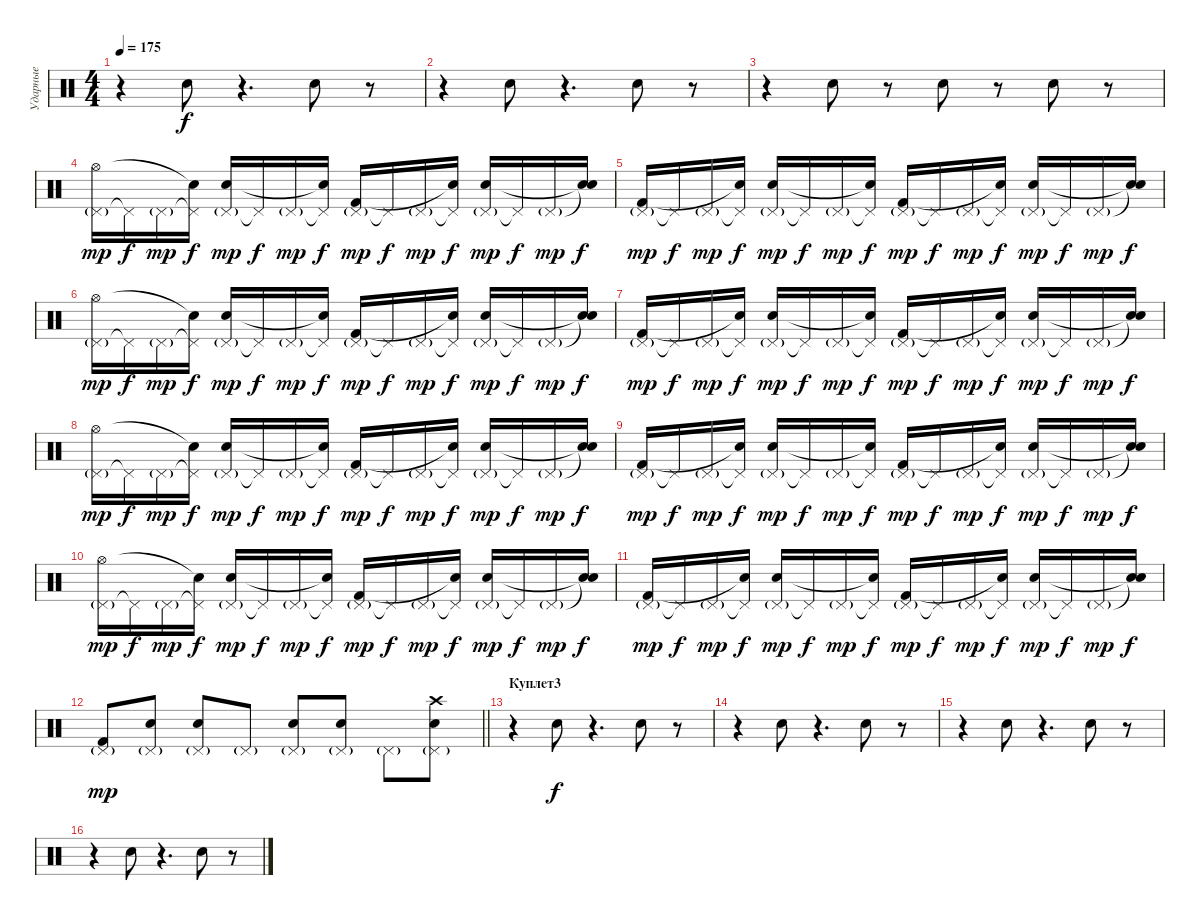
\track ("Ударные" "Ударные") {instrument percussion}
\staff {score}
\articulation defaults
\ts (4 4)
\tempo 175
\clef neutral
\ks c
r.4{dy f} "Electric Snare (hit)".8 r.4{d} "Electric Snare (hit)".8 r.8 |
r.4 "Electric Snare (hit)".8 r.4{d} "Electric Snare (hit)".8 r.8 |
r.4 "Electric Snare (hit)".8 r.8 "Electric Snare (hit)".8 r.8 "Electric Snare (hit)".8 r.8 |
("Pedal Hi-Hat (hit)"{g} "Hi-Hat (open)").16{dy mp} "Pedal Hi-Hat (hit)"{t}.16{dy f} "Pedal Hi-Hat (hit)"{g}.16{dy mp} ("Pedal Hi-Hat (hit)"{t} "Snare (hit)"{t}).16{dy f} ("Pedal Hi-Hat (hit)"{g} "Electric Snare (hit)").16{dy mp} "Pedal Hi-Hat (hit)"{t}.16{dy f} "Pedal Hi-Hat (hit)"{g}.16{dy mp} ("Pedal Hi-Hat (hit)"{t} "Snare (hit)"{t}).16{dy f} ("Pedal Hi-Hat (hit)"{g} "Kick (hit) 2").16{dy mp} "Pedal Hi-Hat (hit)"{t}.16{dy f} "Pedal Hi-Hat (hit)"{g}.16{dy mp} ("Pedal Hi-Hat (hit)"{t} "Snare (hit)"{t}).16{dy f} ("Pedal Hi-Hat (hit)"{g} "Electric Snare (hit)").16{dy mp} "Pedal Hi-Hat (hit)"{t}.16{dy f} "Pedal Hi-Hat (hit)"{g}.16{dy mp} ("Snare (hit)"{t} "Snare (hit)"{t}).16{dy f} |
("Pedal Hi-Hat (hit)"{g} "Kick (hit) 2").16{dy mp} "Pedal Hi-Hat (hit)"{t}.16{dy f} "Pedal Hi-Hat (hit)"{g}.16{dy mp} ("Pedal Hi-Hat (hit)"{t} "Snare (hit)"{t}).16{dy f} ("Pedal Hi-Hat (hit)"{g} "Electric Snare (hit)").16{dy mp} "Pedal Hi-Hat (hit)"{t}.16{dy f} "Pedal Hi-Hat (hit)"{g}.16{dy mp} ("Pedal Hi-Hat (hit)"{t} "Snare (hit)"{t}).16{dy f} ("Pedal Hi-Hat (hit)"{g} "Kick (hit) 2").16{dy mp} "Pedal Hi-Hat (hit)"{t}.16{dy f} "Pedal Hi-Hat (hit)"{g}.16{dy mp} ("Pedal Hi-Hat (hit)"{t} "Snare (hit)"{t}).16{dy f} ("Pedal Hi-Hat (hit)"{g} "Electric Snare (hit)").16{dy mp} "Pedal Hi-Hat (hit)"{t}.16{dy f} "Pedal Hi-Hat (hit)"{g}.16{dy mp} ("Snare (hit)"{t} "Snare (hit)"{t}).16{dy f} |
("Pedal Hi-Hat (hit)"{g} "Hi-Hat (open)").16{dy mp} "Pedal Hi-Hat (hit)"{t}.16{dy f} "Pedal Hi-Hat (hit)"{g}.16{dy mp} ("Pedal Hi-Hat (hit)"{t} "Snare (hit)"{t}).16{dy f} ("Pedal Hi-Hat (hit)"{g} "Electric Snare (hit)").16{dy mp} "Pedal Hi-Hat (hit)"{t}.16{dy f} "Pedal Hi-Hat (hit)"{g}.16{dy mp} ("Pedal Hi-Hat (hit)"{t} "Snare (hit)"{t}).16{dy f} ("Pedal Hi-Hat (hit)"{g} "Kick (hit) 2").16{dy mp} "Pedal Hi-Hat (hit)"{t}.16{dy f} "Pedal Hi-Hat (hit)"{g}.16{dy mp} ("Pedal Hi-Hat (hit)"{t} "Snare (hit)"{t}).16{dy f} ("Pedal Hi-Hat (hit)"{g} "Electric Snare (hit)").16{dy mp} "Pedal Hi-Hat (hit)"{t}.16{dy f} "Pedal Hi-Hat (hit)"{g}.16{dy mp} ("Snare (hit)"{t} "Snare (hit)"{t}).16{dy f} |
("Pedal Hi-Hat (hit)"{g} "Kick (hit) 2").16{dy mp} "Pedal Hi-Hat (hit)"{t}.16{dy f} "Pedal Hi-Hat (hit)"{g}.16{dy mp} ("Pedal Hi-Hat (hit)"{t} "Snare (hit)"{t}).16{dy f} ("Pedal Hi-Hat (hit)"{g} "Electric Snare (hit)").16{dy mp} "Pedal Hi-Hat (hit)"{t}.16{dy f} "Pedal Hi-Hat (hit)"{g}.16{dy mp} ("Pedal Hi-Hat (hit)"{t} "Snare (hit)"{t}).16{dy f} ("Pedal Hi-Hat (hit)"{g} "Kick (hit) 2").16{dy mp} "Pedal Hi-Hat (hit)"{t}.16{dy f} "Pedal Hi-Hat (hit)"{g}.16{dy mp} ("Pedal Hi-Hat (hit)"{t} "Snare (hit)"{t}).16{dy f} ("Pedal Hi-Hat (hit)"{g} "Electric Snare (hit)").16{dy mp} "Pedal Hi-Hat (hit)"{t}.16{dy f} "Pedal Hi-Hat (hit)"{g}.16{dy mp} ("Snare (hit)"{t} "Snare (hit)"{t}).16{dy f} |
("Pedal Hi-Hat (hit)"{g} "Hi-Hat (open)").16{dy mp} "Pedal Hi-Hat (hit)"{t}.16{dy f} "Pedal Hi-Hat (hit)"{g}.16{dy mp} ("Pedal Hi-Hat (hit)"{t} "Snare (hit)"{t}).16{dy f} ("Pedal Hi-Hat (hit)"{g} "Electric Snare (hit)").16{dy mp} "Pedal Hi-Hat (hit)"{t}.16{dy f} "Pedal Hi-Hat (hit)"{g}.16{dy mp} ("Pedal Hi-Hat (hit)"{t} "Snare (hit)"{t}).16{dy f} ("Pedal Hi-Hat (hit)"{g} "Kick (hit) 2").16{dy mp} "Pedal Hi-Hat (hit)"{t}.16{dy f} "Pedal Hi-Hat (hit)"{g}.16{dy mp} ("Pedal Hi-Hat (hit)"{t} "Snare (hit)"{t}).16{dy f} ("Pedal Hi-Hat (hit)"{g} "Electric Snare (hit)").16{dy mp} "Pedal Hi-Hat (hit)"{t}.16{dy f} "Pedal Hi-Hat (hit)"{g}.16{dy mp} ("Snare (hit)"{t} "Snare (hit)"{t}).16{dy f} |
("Pedal Hi-Hat (hit)"{g} "Kick (hit) 2").16{dy mp} "Pedal Hi-Hat (hit)"{t}.16{dy f} "Pedal Hi-Hat (hit)"{g}.16{dy mp} ("Pedal Hi-Hat (hit)"{t} "Snare (hit)"{t}).16{dy f} ("Pedal Hi-Hat (hit)"{g} "Electric Snare (hit)").16{dy mp} "Pedal Hi-Hat (hit)"{t}.16{dy f} "Pedal Hi-Hat (hit)"{g}.16{dy mp} ("Pedal Hi-Hat (hit)"{t} "Snare (hit)"{t}).16{dy f} ("Pedal Hi-Hat (hit)"{g} "Kick (hit) 2").16{dy mp} "Pedal Hi-Hat (hit)"{t}.16{dy f} "Pedal Hi-Hat (hit)"{g}.16{dy mp} ("Pedal Hi-Hat (hit)"{t} "Snare (hit)"{t}).16{dy f} ("Pedal Hi-Hat (hit)"{g} "Electric Snare (hit)").16{dy mp} "Pedal Hi-Hat (hit)"{t}.16{dy f} "Pedal Hi-Hat (hit)"{g}.16{dy mp} ("Snare (hit)"{t} "Snare (hit)"{t}).16{dy f} |
("Pedal Hi-Hat (hit)"{g} "Hi-Hat (open)").16{dy mp} "Pedal Hi-Hat (hit)"{t}.16{dy f} "Pedal Hi-Hat (hit)"{g}.16{dy mp} ("Pedal Hi-Hat (hit)"{t} "Snare (hit)"{t}).16{dy f} ("Pedal Hi-Hat (hit)"{g} "Electric Snare (hit)").16{dy mp} "Pedal Hi-Hat (hit)"{t}.16{dy f} "Pedal Hi-Hat (hit)"{g}.16{dy mp} ("Pedal Hi-Hat (hit)"{t} "Snare (hit)"{t}).16{dy f} ("Pedal Hi-Hat (hit)"{g} "Kick (hit) 2").16{dy mp} "Pedal Hi-Hat (hit)"{t}.16{dy f} "Pedal Hi-Hat (hit)"{g}.16{dy mp} ("Pedal Hi-Hat (hit)"{t} "Snare (hit)"{t}).16{dy f} ("Pedal Hi-Hat (hit)"{g} "Electric Snare (hit)").16{dy mp} "Pedal Hi-Hat (hit)"{t}.16{dy f} "Pedal Hi-Hat (hit)"{g}.16{dy mp} ("Snare (hit)"{t} "Snare (hit)"{t}).16{dy f} |
("Pedal Hi-Hat (hit)"{g} "Kick (hit) 2").16{dy mp} "Pedal Hi-Hat (hit)"{t}.16{dy f} "Pedal Hi-Hat (hit)"{g}.16{dy mp} ("Pedal Hi-Hat (hit)"{t} "Snare (hit)"{t}).16{dy f} ("Pedal Hi-Hat (hit)"{g} "Electric Snare (hit)").16{dy mp} "Pedal Hi-Hat (hit)"{t}.16{dy f} "Pedal Hi-Hat (hit)"{g}.16{dy mp} ("Pedal Hi-Hat (hit)"{t} "Snare (hit)"{t}).16{dy f} ("Pedal Hi-Hat (hit)"{g} "Kick (hit) 2").16{dy mp} "Pedal Hi-Hat (hit)"{t}.16{dy f} "Pedal Hi-Hat (hit)"{g}.16{dy mp} ("Pedal Hi-Hat (hit)"{t} "Snare (hit)"{t}).16{dy f} ("Pedal Hi-Hat (hit)"{g} "Electric Snare (hit)").16{dy mp} "Pedal Hi-Hat (hit)"{t}.16{dy f} "Pedal Hi-Hat (hit)"{g}.16{dy mp} ("Snare (hit)"{t} "Snare (hit)"{t}).16{dy f} |
\barLineRight lightlight
("Pedal Hi-Hat (hit)"{g} "Kick (hit) 2").8{dy mp} ("Pedal Hi-Hat (hit)"{g} "Electric Snare (hit)").8 ("Pedal Hi-Hat (hit)"{g} "Electric Snare (hit)").8 "Pedal Hi-Hat (hit)"{g}.8 ("Pedal Hi-Hat (hit)"{g} "Electric Snare (hit)").8 ("Pedal Hi-Hat (hit)"{g} "Electric Snare (hit)").8 "Pedal Hi-Hat (hit)"{g}.8 ("Pedal Hi-Hat (hit)"{g} "Electric Snare (hit)" "Crash high (hit)").8 |
\section ("" "Куплет3")
r.4 "Electric Snare (hit)".8{dy f} r.4{d} "Electric Snare (hit)".8 r.8 |
r.4 "Electric Snare (hit)".8 r.4{d} "Electric Snare (hit)".8 r.8 |
r.4 "Electric Snare (hit)".8 r.4{d} "Electric Snare (hit)".8 r.8 |
r.4 "Electric Snare (hit)".8 r.4{d} "Electric Snare (hit)".8 r.8
